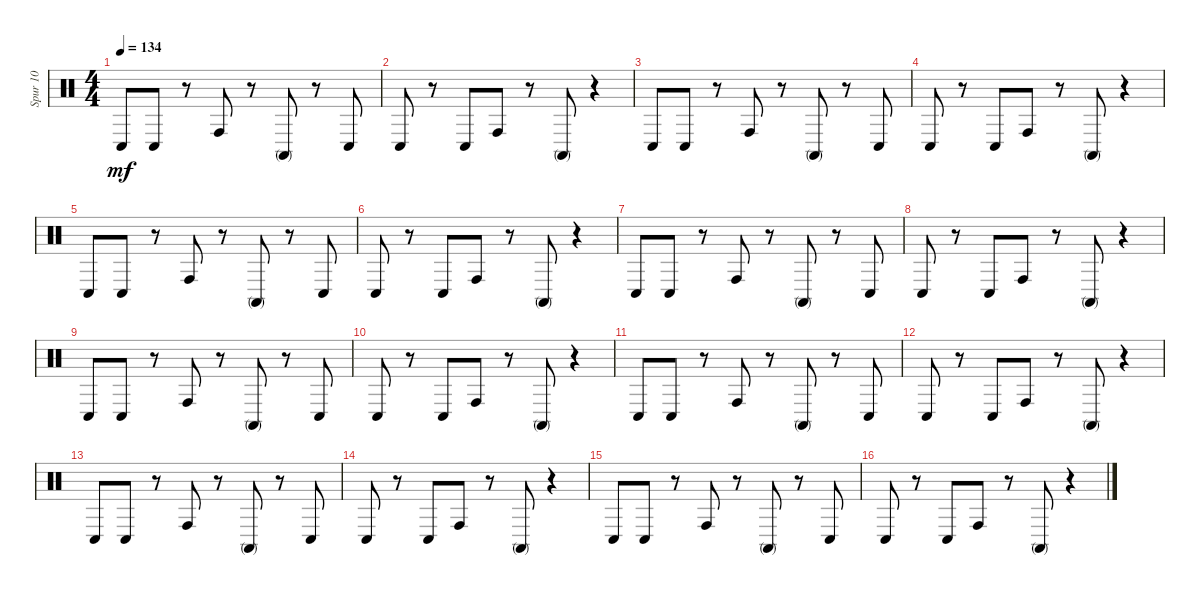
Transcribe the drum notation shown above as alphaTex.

\track ("Spur 10" "Spur 10") {instrument percussion}
\staff {score}
\articulation defaults
\ts (4 4)
\tempo 134
\clef neutral
\ks c "Conga low (hit)".8{dy mf} "Conga low (hit)".8
r.8 "Conga high (hit)".8 r.8 "Conga high (mute)".8 r.8 "Conga low (hit)".8 |
"Conga low (hit)".8 r.8 "Conga low (hit)".8 "Conga high (hit)".8 r.8 "Conga high (mute)".8 r.4 |
"Conga low (hit)".8 "Conga low (hit)".8 r.8 "Conga high (hit)".8 r.8 "Conga high (mute)".8 r.8 "Conga low (hit)".8 |
"Conga low (hit)".8 r.8 "Conga low (hit)".8 "Conga high (hit)".8 r.8 "Conga high (mute)".8 r.4 |
"Conga low (hit)".8 "Conga low (hit)".8 r.8 "Conga high (hit)".8 r.8 "Conga high (mute)".8 r.8 "Conga low (hit)".8 |
"Conga low (hit)".8 r.8 "Conga low (hit)".8 "Conga high (hit)".8 r.8 "Conga high (mute)".8 r.4 |
"Conga low (hit)".8 "Conga low (hit)".8 r.8 "Conga high (hit)".8 r.8 "Conga high (mute)".8 r.8 "Conga low (hit)".8 |
"Conga low (hit)".8 r.8 "Conga low (hit)".8 "Conga high (hit)".8 r.8 "Conga high (mute)".8 r.4 |
"Conga low (hit)".8 "Conga low (hit)".8 r.8 "Conga high (hit)".8 r.8 "Conga high (mute)".8 r.8 "Conga low (hit)".8 |
"Conga low (hit)".8 r.8 "Conga low (hit)".8 "Conga high (hit)".8 r.8 "Conga high (mute)".8 r.4 |
"Conga low (hit)".8 "Conga low (hit)".8 r.8 "Conga high (hit)".8 r.8 "Conga high (mute)".8 r.8 "Conga low (hit)".8 |
"Conga low (hit)".8 r.8 "Conga low (hit)".8 "Conga high (hit)".8 r.8 "Conga high (mute)".8 r.4 |
"Conga low (hit)".8 "Conga low (hit)".8 r.8 "Conga high (hit)".8 r.8 "Conga high (mute)".8 r.8 "Conga low (hit)".8 |
"Conga low (hit)".8 r.8 "Conga low (hit)".8 "Conga high (hit)".8 r.8 "Conga high (mute)".8 r.4 |
"Conga low (hit)".8 "Conga low (hit)".8 r.8 "Conga high (hit)".8 r.8 "Conga high (mute)".8 r.8 "Conga low (hit)".8 |
"Conga low (hit)".8 r.8 "Conga low (hit)".8 "Conga high (hit)".8 r.8 "Conga high (mute)".8 r.4
